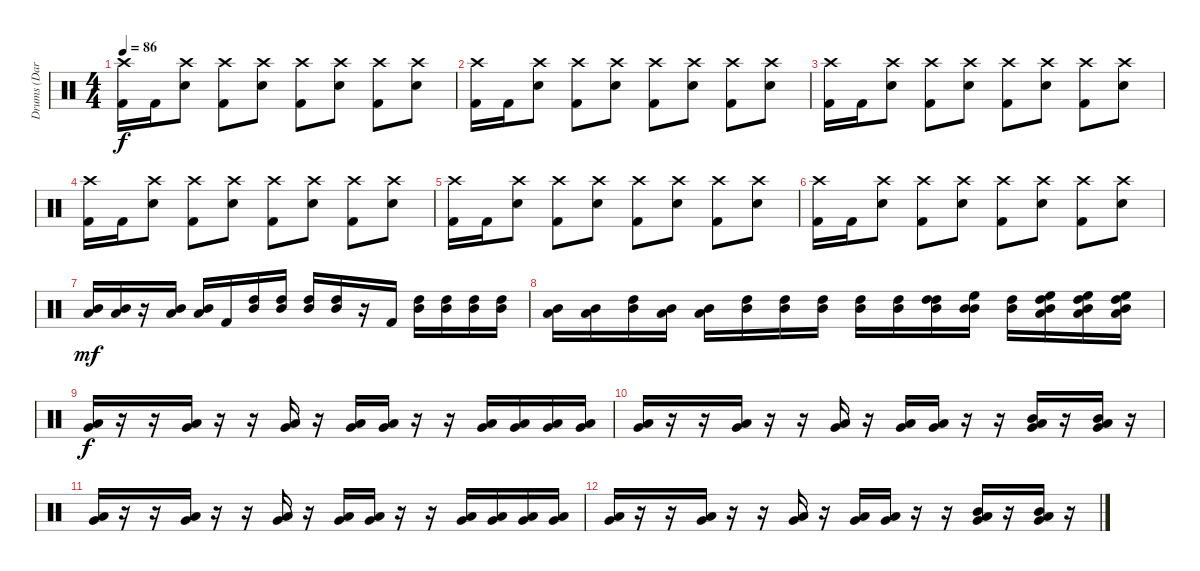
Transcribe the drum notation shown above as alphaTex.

\track ("Drums (Daray) " "Drums (Dar") {instrument percussion}
\staff {score}
\articulation defaults
\ts (4 4)
\tempo 86
\clef neutral
\ks c
("Crash high (hit)" "Kick (hit) 2").16{dy f} "Kick (hit) 2".16 ("Crash high (hit)" "Electric Snare (hit)").8 ("Crash high (hit)" "Kick (hit) 2").8 ("Crash high (hit)" "Electric Snare (hit)").8 ("Crash high (hit)" "Kick (hit) 2").8 ("Crash high (hit)" "Electric Snare (hit)").8 ("Crash high (hit)" "Kick (hit) 2").8 ("Crash high (hit)" "Electric Snare (hit)").8 |
("Crash high (hit)" "Kick (hit) 2").16 "Kick (hit) 2".16 ("Crash high (hit)" "Electric Snare (hit)").8 ("Crash high (hit)" "Kick (hit) 2").8 ("Crash high (hit)" "Electric Snare (hit)").8 ("Crash high (hit)" "Kick (hit) 2").8 ("Crash high (hit)" "Electric Snare (hit)").8 ("Crash high (hit)" "Kick (hit) 2").8 ("Crash high (hit)" "Electric Snare (hit)").8 |
("Crash high (hit)" "Kick (hit) 2").16 "Kick (hit) 2".16 ("Crash high (hit)" "Electric Snare (hit)").8 ("Crash high (hit)" "Kick (hit) 2").8 ("Crash high (hit)" "Electric Snare (hit)").8 ("Crash high (hit)" "Kick (hit) 2").8 ("Crash high (hit)" "Electric Snare (hit)").8 ("Crash high (hit)" "Kick (hit) 2").8 ("Crash high (hit)" "Electric Snare (hit)").8 |
("Crash high (hit)" "Kick (hit) 2").16 "Kick (hit) 2".16 ("Crash high (hit)" "Electric Snare (hit)").8 ("Crash high (hit)" "Kick (hit) 2").8 ("Crash high (hit)" "Electric Snare (hit)").8 ("Crash high (hit)" "Kick (hit) 2").8 ("Crash high (hit)" "Electric Snare (hit)").8 ("Crash high (hit)" "Kick (hit) 2").8 ("Crash high (hit)" "Electric Snare (hit)").8 |
("Crash high (hit)" "Kick (hit) 2").16 "Kick (hit) 2".16 ("Crash high (hit)" "Electric Snare (hit)").8 ("Crash high (hit)" "Kick (hit) 2").8 ("Crash high (hit)" "Electric Snare (hit)").8 ("Crash high (hit)" "Kick (hit) 2").8 ("Crash high (hit)" "Electric Snare (hit)").8 ("Crash high (hit)" "Kick (hit) 2").8 ("Crash high (hit)" "Electric Snare (hit)").8 |
("Crash high (hit)" "Kick (hit) 2").16 "Kick (hit) 2".16 ("Crash high (hit)" "Electric Snare (hit)").8 ("Crash high (hit)" "Kick (hit) 2").8 ("Crash high (hit)" "Electric Snare (hit)").8 ("Crash high (hit)" "Kick (hit) 2").8 ("Crash high (hit)" "Electric Snare (hit)").8 ("Crash high (hit)" "Kick (hit) 2").8 ("Crash high (hit)" "Electric Snare (hit)").8 |
("Mid Tom (hit)" "Low Tom (hit)").16{dy mf} ("Mid Tom (hit)" "Low Tom (hit)").16 r.16 ("Low Tom (hit)" "Mid Tom (hit)").16 ("Mid Tom (hit)" "Low Tom (hit)").16 "Kick (hit) 2".16 ("Mid Tom (hit)" "High Tom (hit)").16 ("Mid Tom (hit)" "High Tom (hit)").16 ("Mid Tom (hit)" "High Tom (hit)").16 ("Mid Tom (hit)" "High Tom (hit)").16 r.16 "Kick (hit) 2".16 ("High Tom (hit)" "Mid Tom (hit)").16 ("High Tom (hit)" "Mid Tom (hit)").16 ("High Tom (hit)" "Mid Tom (hit)").16 ("High Tom (hit)" "Mid Tom (hit)").16 |
("Mid Tom (hit)" "Low Tom (hit)").16 ("Mid Tom (hit)" "Low Tom (hit)").16 ("Mid Tom (hit)" "High Tom (hit)").16 ("Low Tom (hit)" "Mid Tom (hit)").16 ("Mid Tom (hit)" "Low Tom (hit)").16 ("High Tom (hit)" "Mid Tom (hit)").16 ("Mid Tom (hit)" "High Tom (hit)").16 ("Mid Tom (hit)" "High Tom (hit)").16 ("Mid Tom (hit)" "High Tom (hit)").16 ("Mid Tom (hit)" "High Tom (hit)").16 ("High Tom (hit)" "High Tom (hit)" "Mid Tom (hit)").16 ("High Floor Tom (hit)" "Mid Tom (hit)" "Mid Tom (hit)").16 ("High Tom (hit)" "Mid Tom (hit)").16 ("High Floor Tom (hit)" "High Tom (hit)" "Mid Tom (hit)" "Low Floor Tom (hit)").16 ("High Floor Tom (hit)" "High Tom (hit)" "Mid Tom (hit)" "Low Floor Tom (hit)").16 ("High Floor Tom (hit)" "High Tom (hit)" "Mid Tom (hit)" "Low Floor Tom (hit)").16 |
("Very Low Tom (hit)" "Low Tom (hit)").16{dy f} r.16 r.16 ("Very Low Tom (hit)" "Low Tom (hit)").16 r.16 r.16 ("Very Low Tom (hit)" "Low Tom (hit)").16 r.16 ("Very Low Tom (hit)" "Low Tom (hit)").16 ("Very Low Tom (hit)" "Low Tom (hit)").16 r.16 r.16 ("Low Tom (hit)" "Very Low Tom (hit)").16 ("Low Tom (hit)" "Very Low Tom (hit)").16 ("Low Tom (hit)" "Very Low Tom (hit)").16 ("Low Tom (hit)" "Very Low Tom (hit)").16 |
("Very Low Tom (hit)" "Low Tom (hit)").16 r.16 r.16 ("Very Low Tom (hit)" "Low Tom (hit)").16 r.16 r.16 ("Very Low Tom (hit)" "Low Tom (hit)").16 r.16 ("Very Low Tom (hit)" "Low Tom (hit)").16 ("Very Low Tom (hit)" "Low Tom (hit)").16 r.16 r.16 ("Mid Tom (hit)" "Low Tom (hit)" "Very Low Tom (hit)").16 r.16 ("Mid Tom (hit)" "Low Tom (hit)" "Very Low Tom (hit)").16 r.16 |
("Very Low Tom (hit)" "Low Tom (hit)").16 r.16 r.16 ("Very Low Tom (hit)" "Low Tom (hit)").16 r.16 r.16 ("Very Low Tom (hit)" "Low Tom (hit)").16 r.16 ("Very Low Tom (hit)" "Low Tom (hit)").16 ("Very Low Tom (hit)" "Low Tom (hit)").16 r.16 r.16 ("Low Tom (hit)" "Very Low Tom (hit)").16 ("Low Tom (hit)" "Very Low Tom (hit)").16 ("Low Tom (hit)" "Very Low Tom (hit)").16 ("Low Tom (hit)" "Very Low Tom (hit)").16 |
("Very Low Tom (hit)" "Low Tom (hit)").16 r.16 r.16 ("Very Low Tom (hit)" "Low Tom (hit)").16 r.16 r.16 ("Very Low Tom (hit)" "Low Tom (hit)").16 r.16 ("Very Low Tom (hit)" "Low Tom (hit)").16 ("Very Low Tom (hit)" "Low Tom (hit)").16 r.16 r.16 ("Mid Tom (hit)" "Low Tom (hit)" "Very Low Tom (hit)").16 r.16 ("Mid Tom (hit)" "Low Tom (hit)" "Very Low Tom (hit)").16 r.16
